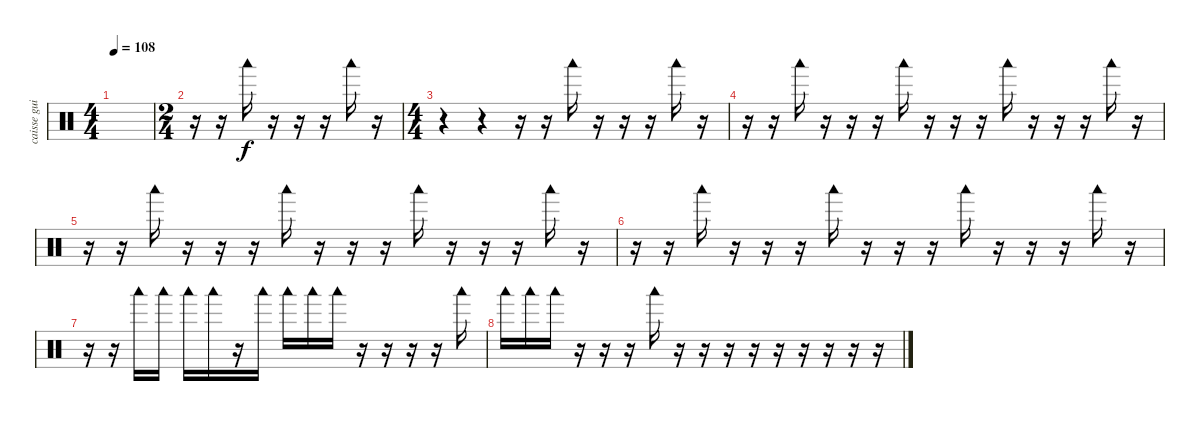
\track ("caisse guitare Di Meola" "caisse gui") {instrument percussion}
\staff {score}
\articulation defaults
\ts (4 4)
\tempo 108
\clef neutral
\ks c
|
\ts (2 4)
r.16 r.16 "Woodblock low (hit)".16 r.16 r.16 r.16 "Woodblock low (hit)".16 r.16 |
\ts (4 4)
r.4 r.4 r.16 r.16 "Woodblock low (hit)".16 r.16 r.16 r.16 "Woodblock low (hit)".16 r.16 |
r.16 r.16 "Woodblock low (hit)".16 r.16 r.16 r.16 "Woodblock low (hit)".16 r.16 r.16 r.16 "Woodblock low (hit)".16 r.16 r.16 r.16 "Woodblock low (hit)".16 r.16 |
r.16 r.16 "Woodblock low (hit)".16 r.16 r.16 r.16 "Woodblock low (hit)".16 r.16 r.16 r.16 "Woodblock low (hit)".16 r.16 r.16 r.16 "Woodblock low (hit)".16 r.16 |
r.16 r.16 "Woodblock low (hit)".16 r.16 r.16 r.16 "Woodblock low (hit)".16 r.16 r.16 r.16 "Woodblock low (hit)".16 r.16 r.16 r.16 "Woodblock low (hit)".16 r.16 |
r.16 r.16 "Woodblock low (hit)".16 "Woodblock low (hit)".16 "Woodblock low (hit)".16 "Woodblock low (hit)".16 r.16 "Woodblock low (hit)".16 "Woodblock low (hit)".16 "Woodblock low (hit)".16 "Woodblock low (hit)".16 r.16 r.16 r.16 r.16 "Woodblock low (hit)".16 |
"Woodblock low (hit)".16 "Woodblock low (hit)".16 "Woodblock low (hit)".16 r.16 r.16 r.16 "Woodblock low (hit)".16 r.16 r.16 r.16 r.16 r.16 r.16 r.16 r.16 r.16
